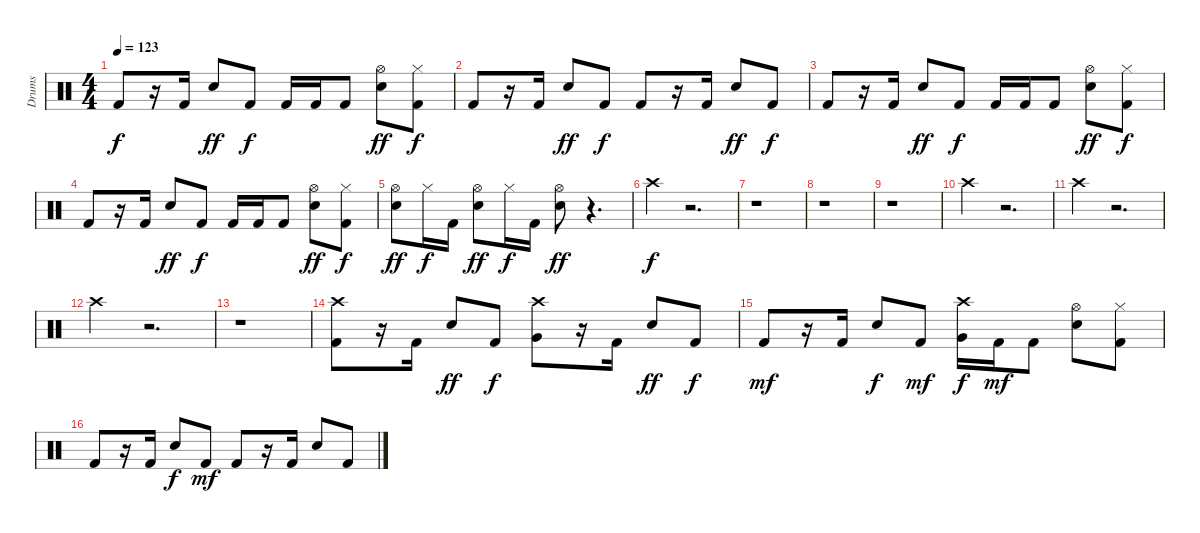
\track ("Drums" "Drums") {instrument percussion}
\staff {score}
\articulation defaults
\ts (4 4)
\tempo 123
\clef neutral
\ks c "Kick (hit) 2".8{dy f}
r.16 "Kick (hit) 2".16 "Snare (hit) 2".8{dy ff} "Kick (hit) 2".8{dy f} "Kick (hit) 2".16 "Kick (hit) 2".16 "Kick (hit) 2".8 ("Snare (hit) 2" "Hi-Hat (open)").8{dy ff} ("Kick (hit) 2" "Hi-Hat (closed)").8{dy f} |
"Kick (hit) 2".8 r.16 "Kick (hit) 2".16 "Snare (hit) 2".8{dy ff} "Kick (hit) 2".8{dy f} "Kick (hit) 2".8 r.16 "Kick (hit) 2".16 "Snare (hit) 2".8{dy ff} "Kick (hit) 2".8{dy f} |
"Kick (hit) 2".8 r.16 "Kick (hit) 2".16 "Snare (hit) 2".8{dy ff} "Kick (hit) 2".8{dy f} "Kick (hit) 2".16 "Kick (hit) 2".16 "Kick (hit) 2".8 ("Snare (hit) 2" "Hi-Hat (open)").8{dy ff} ("Kick (hit) 2" "Hi-Hat (closed)").8{dy f} |
"Kick (hit) 2".8 r.16 "Kick (hit) 2".16 "Snare (hit) 2".8{dy ff} "Kick (hit) 2".8{dy f} "Kick (hit) 2".16 "Kick (hit) 2".16 "Kick (hit) 2".8 ("Snare (hit) 2" "Hi-Hat (open)").8{dy ff} ("Kick (hit) 2" "Hi-Hat (closed)").8{dy f} |
("Snare (hit) 2" "Hi-Hat (open)").8{dy ff} "Hi-Hat (closed)".16{dy f} "Kick (hit) 2".16 ("Snare (hit) 2" "Hi-Hat (open)").8{dy ff} "Hi-Hat (closed)".16{dy f} "Kick (hit) 2".16 ("Snare (hit) 2" "Hi-Hat (open)").8{dy ff} r.4{d} |
"Crash high (hit)".4{dy f} r.2{d} |
r.1 |
r.1 |
r.1 |
"Crash high (hit)".4 r.2{d} |
"Crash high (hit)".4 r.2{d} |
"Crash high (hit)".4 r.2{d} |
r.1 |
("Kick (hit) 2" "Crash high (hit)").8 r.16 "Kick (hit) 2".16 "Snare (hit) 2".8{dy ff} "Kick (hit) 2".8{dy f} ("Very Low Tom (hit)" "Crash high (hit)").8 r.16 "Kick (hit) 2".16 "Snare (hit) 2".8{dy ff} "Kick (hit) 2".8{dy f} |
"Kick (hit) 2".8{dy mf} r.16 "Kick (hit) 2".16 "Snare (hit) 2".8{dy f} "Kick (hit) 2".8{dy mf} ("Very Low Tom (hit)" "Crash high (hit)").16{dy f} "Kick (hit) 2".16{dy mf} "Kick (hit) 2".8 ("Snare (hit) 2" "Hi-Hat (open)").8 ("Kick (hit) 2" "Hi-Hat (closed)").8 |
"Kick (hit) 2".8 r.16 "Kick (hit) 2".16 "Snare (hit) 2".8{dy f} "Kick (hit) 2".8{dy mf} "Kick (hit) 2".8 r.16 "Kick (hit) 2".16 "Snare (hit) 2".8 "Kick (hit) 2".8
